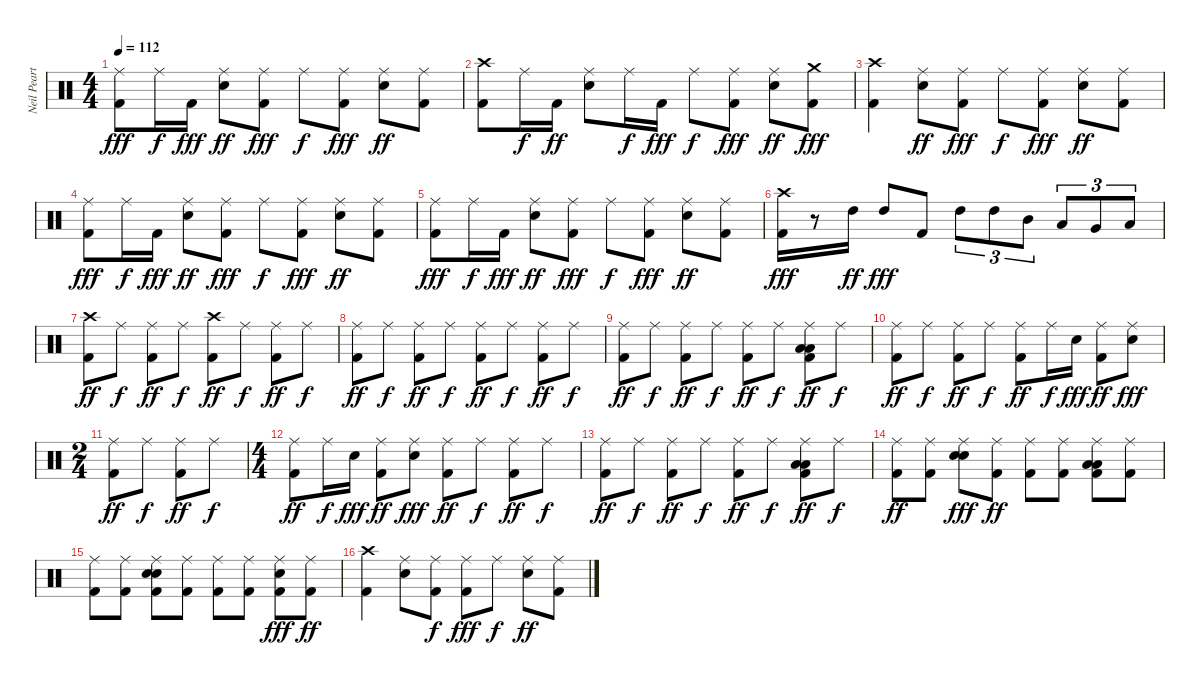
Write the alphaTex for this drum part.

\track ("Neil Peart" "Neil Peart") {instrument percussion}
\staff {score}
\articulation defaults
\ts (4 4)
\tempo 112
\clef neutral
\ks c
("Ride (middle)" "Kick (hit) 2").8{dy fff} "Ride (middle)".16{dy f} "Kick (hit) 2".16{dy fff} ("Ride (middle)" "Snare (hit) 2").8{dy ff} ("Ride (middle)" "Kick (hit) 2").8{dy fff} "Ride (middle)".8{dy f} ("Ride (middle)" "Kick (hit) 2").8{dy fff} ("Ride (middle)" "Snare (hit) 2").8{dy ff} ("Ride (middle)" "Kick (hit) 2").8 |
("Crash high (hit)" "Kick (hit) 2").8 "Ride (middle)".16{dy f} "Kick (hit) 2".16{dy ff} ("Ride (middle)" "Snare (hit) 2").8 "Ride (middle)".16{dy f} "Kick (hit) 2".16{dy fff} "Ride (middle)".8{dy f} ("Ride (middle)" "Kick (hit) 2").8{dy fff} ("Ride (middle)" "Snare (hit) 2").8{dy ff} ("Crash medium (hit)" "Kick (hit) 2").8{dy fff} |
("Crash high (hit)" "Kick (hit) 2").4 ("Ride (middle)" "Snare (hit) 2").8{dy ff} ("Ride (middle)" "Kick (hit) 2").8{dy fff} "Ride (middle)".8{dy f} ("Ride (middle)" "Kick (hit) 2").8{dy fff} ("Ride (middle)" "Snare (hit) 2").8{dy ff} ("Ride (middle)" "Kick (hit) 2").8 |
("Ride (middle)" "Kick (hit) 2").8{dy fff} "Ride (middle)".16{dy f} "Kick (hit) 2".16{dy fff} ("Ride (middle)" "Snare (hit) 2").8{dy ff} ("Ride (middle)" "Kick (hit) 2").8{dy fff} "Ride (middle)".8{dy f} ("Ride (middle)" "Kick (hit) 2").8{dy fff} ("Ride (middle)" "Snare (hit) 2").8{dy ff} ("Ride (middle)" "Kick (hit) 2").8 |
("Ride (middle)" "Kick (hit) 2").8{dy fff} "Ride (middle)".16{dy f} "Kick (hit) 2".16{dy fff} ("Ride (middle)" "Snare (hit) 2").8{dy ff} ("Ride (middle)" "Kick (hit) 2").8{dy fff} "Ride (middle)".8{dy f} ("Ride (middle)" "Kick (hit) 2").8{dy fff} ("Ride (middle)" "Snare (hit) 2").8{dy ff} ("Ride (middle)" "Kick (hit) 2").8 |
("Crash high (hit)" "Kick (hit) 2").16{dy fff} r.8 "High Tom (hit)".16{dy ff} "High Tom (hit)".8{dy fff} "Kick (hit) 2".8 "High Tom (hit)".8{tu (3 2)} "High Tom (hit)".8{tu (3 2)} "Mid Tom (hit)".8{tu (3 2)} "Low Tom (hit)".8{tu (3 2)} "Very Low Tom (hit)".8{tu (3 2)} "Low Floor Tom (hit)".8{tu (3 2)} |
("Crash high (hit)" "Kick (hit) 2").8{dy ff} "Ride (middle)".8{dy f} ("Ride (middle)" "Kick (hit) 2").8{dy ff} "Ride (middle)".8{dy f} ("Crash high (hit)" "Kick (hit) 2").8{dy ff} "Ride (middle)".8{dy f} ("Ride (middle)" "Kick (hit) 2").8{dy ff} "Ride (middle)".8{dy f} |
("Ride (middle)" "Kick (hit) 2").8{dy ff} "Ride (middle)".8{dy f} ("Ride (middle)" "Kick (hit) 2").8{dy ff} "Ride (middle)".8{dy f} ("Ride (middle)" "Kick (hit) 2").8{dy ff} "Ride (middle)".8{dy f} ("Ride (middle)" "Kick (hit) 2").8{dy ff} "Ride (middle)".8{dy f} |
("Kick (hit) 2" "Ride (middle)").8{dy ff} "Ride (middle)".8{dy f} ("Kick (hit) 2" "Ride (middle)").8{dy ff} "Ride (middle)".8{dy f} ("Kick (hit) 2" "Ride (middle)").8{dy ff} "Ride (middle)".8{dy f} ("Low Floor Tom (hit)" "Low Tom (hit)" "Ride (middle)" "Kick (hit) 2").8{dy ff} "Ride (middle)".8{dy f} |
("Ride (middle)" "Kick (hit) 2").8{dy ff} "Ride (middle)".8{dy f} ("Ride (middle)" "Kick (hit) 2").8{dy ff} "Ride (middle)".8{dy f} ("Ride (middle)" "Kick (hit) 2").8{dy ff} "Ride (middle)".16{dy f} "Snare (hit) 2".16{dy fff} ("Ride (middle)" "Kick (hit) 2").8{dy ff} ("Ride (middle)" "Snare (hit) 2").8{dy fff} |
\ts (2 4)
("Ride (middle)" "Kick (hit) 2").8{dy ff} "Ride (middle)".8{dy f} ("Ride (middle)" "Kick (hit) 2").8{dy ff} "Ride (middle)".8{dy f} |
\ts (4 4)
("Ride (middle)" "Kick (hit) 2").8{dy ff} "Ride (middle)".16{dy f} "Snare (hit) 2".16{dy fff} ("Ride (middle)" "Kick (hit) 2").8{dy ff} ("Ride (middle)" "Snare (hit) 2").8{dy fff} ("Ride (middle)" "Kick (hit) 2").8{dy ff} "Ride (middle)".8{dy f} ("Kick (hit) 2" "Ride (middle)").8{dy ff} "Ride (middle)".8{dy f} |
("Ride (middle)" "Kick (hit) 2").8{dy ff} "Ride (middle)".8{dy f} ("Ride (middle)" "Kick (hit) 2").8{dy ff} "Ride (middle)".8{dy f} ("Ride (middle)" "Kick (hit) 2").8{dy ff} "Ride (middle)".8{dy f} ("Low Floor Tom (hit)" "Low Tom (hit)" "Ride (middle)" "Kick (hit) 2").8{dy ff} "Ride (middle)".8{dy f} |
("Ride (middle)" "Kick (hit) 2").8{dy ff} ("Ride (middle)" "Kick (hit) 2").8 ("Snare (hit) 2" "Ride (middle)" "Snare (hit) 2").8{dy fff} ("Ride (middle)" "Kick (hit) 2").8{dy ff} ("Ride (middle)" "Kick (hit) 2").8 ("Ride (middle)" "Kick (hit) 2").8 ("Low Floor Tom (hit)" "Low Tom (hit)" "Ride (middle)" "Kick (hit) 2").8 ("Kick (hit) 2" "Ride (middle)").8 |
("Ride (middle)" "Kick (hit) 2").8 ("Ride (middle)" "Kick (hit) 2").8 ("Snare (hit) 2" "Ride (middle)" "Snare (hit) 2" "Kick (hit) 2").8 ("Kick (hit) 2" "Ride (middle)").8 ("Ride (middle)" "Kick (hit) 2").8 ("Ride (middle)" "Kick (hit) 2").8 ("Ride (middle)" "Kick (hit) 2" "Snare (hit) 2").8{dy fff} ("Ride (middle)" "Kick (hit) 2").8{dy ff} |
("Crash high (hit)" "Kick (hit) 2").4 ("Ride (middle)" "Snare (hit) 2").8 ("Kick (hit) 2" "Ride (middle)").8{dy f} ("Kick (hit) 2" "Ride (middle)").8{dy fff} "Ride (middle)".8{dy f} ("Snare (hit) 2" "Ride (middle)").8{dy ff} ("Kick (hit) 2" "Ride (middle)").8
